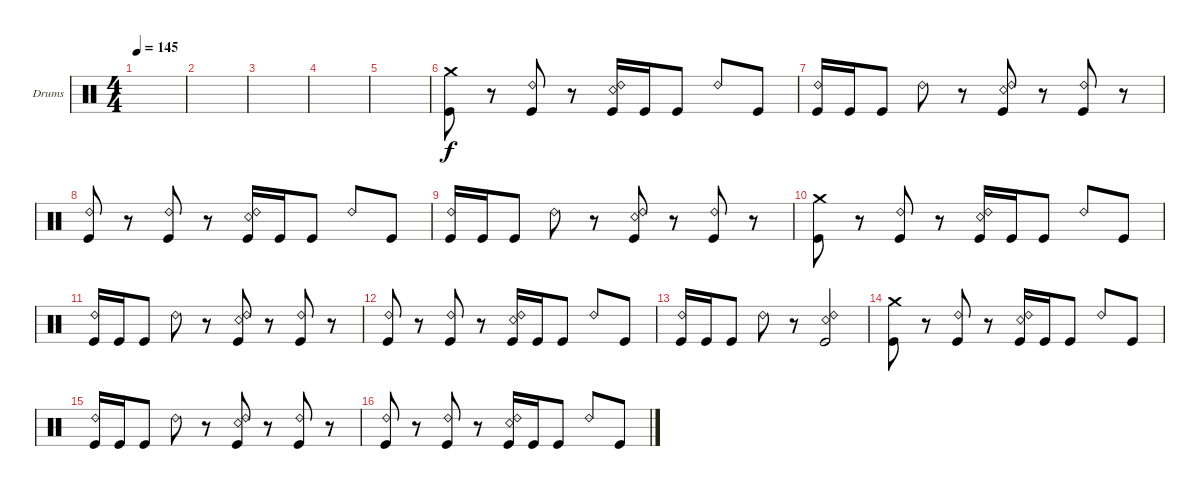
\bracketExtendMode groupsimilarinstruments
\firstSystemTrackNameOrientation horizontal
\otherSystemsTrackNameOrientation horizontal
\track ("Kaleb - Drums" "Drums") {instrument percussion}
\staff {score}
\articulation defaults
\ts (4 4)
\tempo 145
\clef neutral
\ks c
|
|
|
|
|
("Kick (hit)" "Crash medium (hit)").8 r.8 ("Kick (hit)" "Ride (bell) 2").8 r.8 ("Kick (hit)" "Ride (bell) 2" "Snare (rim shot)").16 "Kick (hit)".16 "Kick (hit)".8 "Ride (bell) 2".8 "Kick (hit)".8 |
("Kick (hit)" "Ride (bell) 2").16 "Kick (hit)".16 "Kick (hit)".8 "Ride (bell) 2".8 r.8 ("Kick (hit)" "Ride (bell) 2" "Snare (rim shot)").8 r.8 ("Kick (hit)" "Ride (bell) 2").8 r.8 |
("Kick (hit)" "Ride (bell) 2").8 r.8 ("Kick (hit)" "Ride (bell) 2").8 r.8 ("Kick (hit)" "Ride (bell) 2" "Snare (rim shot)").16 "Kick (hit)".16 "Kick (hit)".8 "Ride (bell) 2".8 "Kick (hit)".8 |
("Kick (hit)" "Ride (bell) 2").16 "Kick (hit)".16 "Kick (hit)".8 "Ride (bell) 2".8 r.8 ("Kick (hit)" "Ride (bell) 2" "Snare (rim shot)").8 r.8 ("Kick (hit)" "Ride (bell) 2").8 r.8 |
("Kick (hit)" "Crash medium (hit)").8 r.8 ("Kick (hit)" "Ride (bell) 2").8 r.8 ("Kick (hit)" "Ride (bell) 2" "Snare (rim shot)").16 "Kick (hit)".16 "Kick (hit)".8 "Ride (bell) 2".8 "Kick (hit)".8 |
("Kick (hit)" "Ride (bell) 2").16 "Kick (hit)".16 "Kick (hit)".8 "Ride (bell) 2".8 r.8 ("Kick (hit)" "Ride (bell) 2" "Snare (rim shot)").8 r.8 ("Kick (hit)" "Ride (bell) 2").8 r.8 |
("Kick (hit)" "Ride (bell) 2").8 r.8 ("Kick (hit)" "Ride (bell) 2").8 r.8 ("Kick (hit)" "Ride (bell) 2" "Snare (rim shot)").16 "Kick (hit)".16 "Kick (hit)".8 "Ride (bell) 2".8 "Kick (hit)".8 |
("Kick (hit)" "Ride (bell) 2").16 "Kick (hit)".16 "Kick (hit)".8 "Ride (bell) 2".8 r.8 ("Kick (hit)" "Ride (bell) 2" "Snare (rim shot)").2 |
("Kick (hit)" "Crash medium (hit)").8 r.8 ("Kick (hit)" "Ride (bell) 2").8 r.8 ("Kick (hit)" "Ride (bell) 2" "Snare (rim shot)").16 "Kick (hit)".16 "Kick (hit)".8 "Ride (bell) 2".8 "Kick (hit)".8 |
("Kick (hit)" "Ride (bell) 2").16 "Kick (hit)".16 "Kick (hit)".8 "Ride (bell) 2".8 r.8 ("Kick (hit)" "Ride (bell) 2" "Snare (rim shot)").8 r.8 ("Kick (hit)" "Ride (bell) 2").8 r.8 |
("Kick (hit)" "Ride (bell) 2").8 r.8 ("Kick (hit)" "Ride (bell) 2").8 r.8 ("Kick (hit)" "Ride (bell) 2" "Snare (rim shot)").16 "Kick (hit)".16 "Kick (hit)".8 "Ride (bell) 2".8 "Kick (hit)".8
